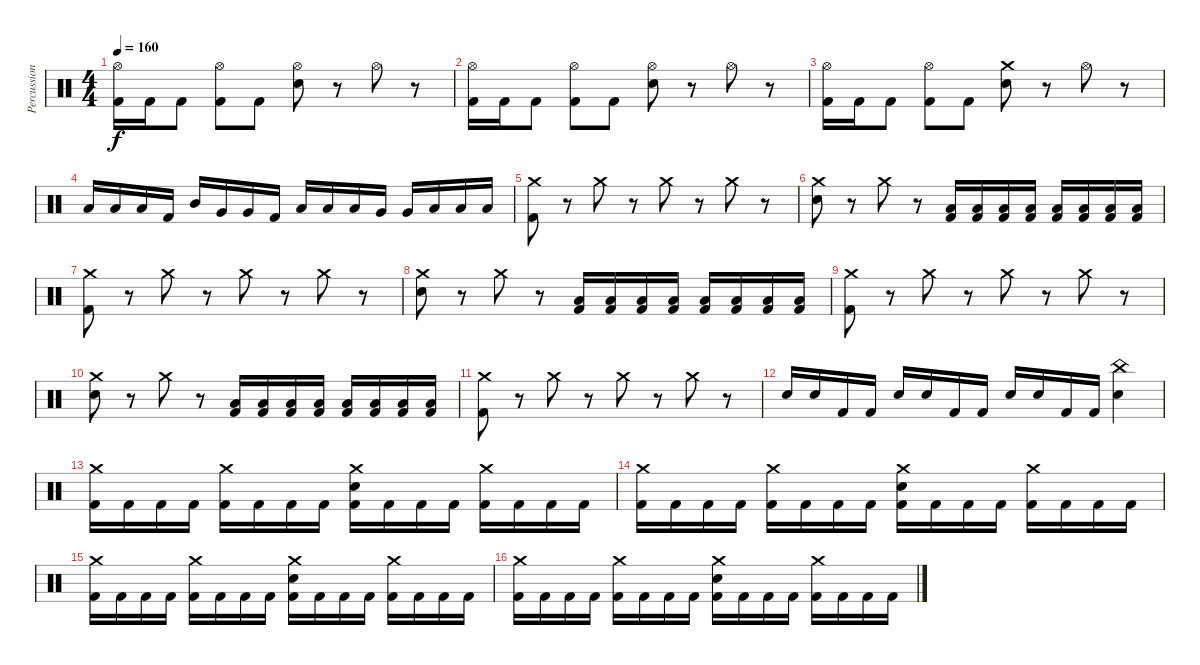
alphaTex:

\track ("Percussion" "Percussion") {instrument percussion}
\staff {score}
\articulation defaults
\ts (4 4)
\tempo 160
\clef neutral
\ks c
("Kick (hit) 2" "Hi-Hat (open)").16{dy f} "Kick (hit) 2".16 "Kick (hit) 2".8 ("Kick (hit) 2" "Hi-Hat (open)").8 "Kick (hit) 2".8 ("Electric Snare (hit)" "Hi-Hat (open)").8 r.8 "Hi-Hat (open)".8 r.8 |
("Kick (hit) 2" "Hi-Hat (open)").16 "Kick (hit) 2".16 "Kick (hit) 2".8 ("Kick (hit) 2" "Hi-Hat (open)").8 "Kick (hit) 2".8 ("Electric Snare (hit)" "Hi-Hat (open)").8 r.8 "Hi-Hat (open)".8 r.8 |
("Kick (hit) 2" "Hi-Hat (open)").16 "Kick (hit) 2".16 "Kick (hit) 2".8 ("Kick (hit) 2" "Hi-Hat (open)").8 "Kick (hit) 2".8 ("Electric Snare (hit)" "Crash medium (hit)").8 r.8 "Hi-Hat (open)".8 r.8 |
"Low Tom (hit)".16 "Low Tom (hit)".16 "Low Tom (hit)".16 "Kick (hit) 2".16 "Mid Tom (hit)".16 "Very Low Tom (hit)".16 "Very Low Tom (hit)".16 "Kick (hit) 2".16 "Low Tom (hit)".16 "Low Tom (hit)".16 "Low Tom (hit)".16 "Very Low Tom (hit)".16 "Very Low Tom (hit)".16 "Low Floor Tom (hit)".16 "Low Floor Tom (hit)".16 "Low Floor Tom (hit)".16 |
("Kick (hit) 2" "Crash medium (hit)").8 r.8 "Crash medium (hit)".8 r.8 "Crash medium (hit)".8 r.8 "Crash medium (hit)".8 r.8 |
("Electric Snare (hit)" "Crash medium (hit)").8 r.8 "Crash medium (hit)".8 r.8 ("Kick (hit) 2" "Low Tom (hit)").16 ("Kick (hit) 2" "Low Tom (hit)").16 ("Kick (hit) 2" "Low Tom (hit)").16 ("Kick (hit) 2" "Low Tom (hit)").16 ("Kick (hit) 2" "Low Tom (hit)").16 ("Kick (hit) 2" "Low Tom (hit)").16 ("Kick (hit) 2" "Low Tom (hit)").16 ("Kick (hit) 2" "Low Tom (hit)").16 |
("Kick (hit) 2" "Crash medium (hit)").8 r.8 "Crash medium (hit)".8 r.8 "Crash medium (hit)".8 r.8 "Crash medium (hit)".8 r.8 |
("Electric Snare (hit)" "Crash medium (hit)").8 r.8 "Crash medium (hit)".8 r.8 ("Kick (hit) 2" "Low Tom (hit)").16 ("Kick (hit) 2" "Low Tom (hit)").16 ("Kick (hit) 2" "Low Tom (hit)").16 ("Kick (hit) 2" "Low Tom (hit)").16 ("Kick (hit) 2" "Low Tom (hit)").16 ("Kick (hit) 2" "Low Tom (hit)").16 ("Kick (hit) 2" "Low Tom (hit)").16 ("Kick (hit) 2" "Low Tom (hit)").16 |
("Kick (hit) 2" "Crash medium (hit)").8 r.8 "Crash medium (hit)".8 r.8 "Crash medium (hit)".8 r.8 "Crash medium (hit)".8 r.8 |
("Electric Snare (hit)" "Crash medium (hit)").8 r.8 "Crash medium (hit)".8 r.8 ("Kick (hit) 2" "Low Tom (hit)").16 ("Kick (hit) 2" "Low Tom (hit)").16 ("Kick (hit) 2" "Low Tom (hit)").16 ("Kick (hit) 2" "Low Tom (hit)").16 ("Kick (hit) 2" "Low Tom (hit)").16 ("Kick (hit) 2" "Low Tom (hit)").16 ("Kick (hit) 2" "Low Tom (hit)").16 ("Kick (hit) 2" "Low Tom (hit)").16 |
("Kick (hit) 2" "Crash medium (hit)").8 r.8 "Crash medium (hit)".8 r.8 "Crash medium (hit)".8 r.8 "Crash medium (hit)".8 r.8 |
"Electric Snare (hit)".16 "Electric Snare (hit)".16 "Kick (hit) 2".16 "Kick (hit) 2".16 "Electric Snare (hit)".16 "Electric Snare (hit)".16 "Kick (hit) 2".16 "Kick (hit) 2".16 "Electric Snare (hit)".16 "Electric Snare (hit)".16 "Kick (hit) 2".16 "Kick (hit) 2".16 ("Electric Snare (hit)" "China (hit)").4 |
("Kick (hit) 2" "Crash medium (hit)").16 "Kick (hit) 2".16 "Kick (hit) 2".16 "Kick (hit) 2".16 ("Kick (hit) 2" "Crash medium (hit)").16 "Kick (hit) 2".16 "Kick (hit) 2".16 "Kick (hit) 2".16 ("Kick (hit) 2" "Electric Snare (hit)" "Crash medium (hit)").16 "Kick (hit) 2".16 "Kick (hit) 2".16 "Kick (hit) 2".16 ("Kick (hit) 2" "Crash medium (hit)").16 "Kick (hit) 2".16 "Kick (hit) 2".16 "Kick (hit) 2".16 |
("Kick (hit) 2" "Crash medium (hit)").16 "Kick (hit) 2".16 "Kick (hit) 2".16 "Kick (hit) 2".16 ("Kick (hit) 2" "Crash medium (hit)").16 "Kick (hit) 2".16 "Kick (hit) 2".16 "Kick (hit) 2".16 ("Kick (hit) 2" "Electric Snare (hit)" "Crash medium (hit)").16 "Kick (hit) 2".16 "Kick (hit) 2".16 "Kick (hit) 2".16 ("Kick (hit) 2" "Crash medium (hit)").16 "Kick (hit) 2".16 "Kick (hit) 2".16 "Kick (hit) 2".16 |
("Kick (hit) 2" "Crash medium (hit)").16 "Kick (hit) 2".16 "Kick (hit) 2".16 "Kick (hit) 2".16 ("Kick (hit) 2" "Crash medium (hit)").16 "Kick (hit) 2".16 "Kick (hit) 2".16 "Kick (hit) 2".16 ("Kick (hit) 2" "Electric Snare (hit)" "Crash medium (hit)").16 "Kick (hit) 2".16 "Kick (hit) 2".16 "Kick (hit) 2".16 ("Kick (hit) 2" "Crash medium (hit)").16 "Kick (hit) 2".16 "Kick (hit) 2".16 "Kick (hit) 2".16 |
("Kick (hit) 2" "Crash medium (hit)").16 "Kick (hit) 2".16 "Kick (hit) 2".16 "Kick (hit) 2".16 ("Kick (hit) 2" "Crash medium (hit)").16 "Kick (hit) 2".16 "Kick (hit) 2".16 "Kick (hit) 2".16 ("Kick (hit) 2" "Electric Snare (hit)" "Crash medium (hit)").16 "Kick (hit) 2".16 "Kick (hit) 2".16 "Kick (hit) 2".16 ("Kick (hit) 2" "Crash medium (hit)").16 "Kick (hit) 2".16 "Kick (hit) 2".16 "Kick (hit) 2".16
